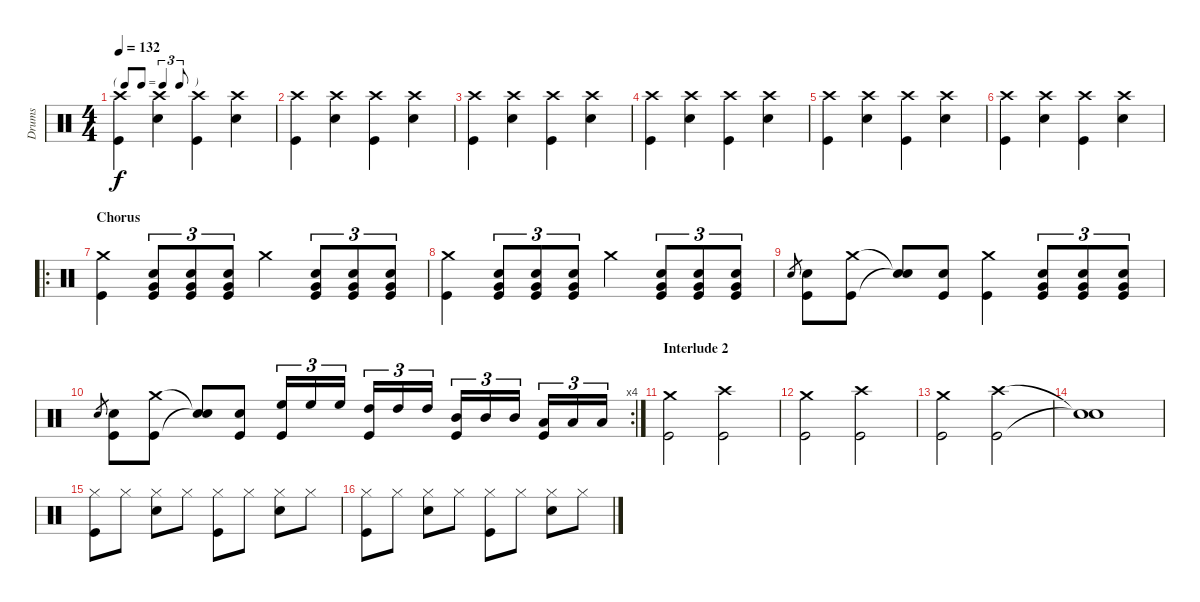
\track ("Drums" "Drums") {instrument percussion}
\staff {score}
\articulation defaults
\ts (4 4)
\tf triplet8th
\tempo 132
\clef neutral
\ks c
("Crash high (hit)" "Kick (hit)").4{dy f} ("Crash high (hit)" "Snare (hit) 2").4 ("Crash high (hit)" "Kick (hit)").4 ("Crash high (hit)" "Snare (hit) 2").4 |
("Crash high (hit)" "Kick (hit)").4 ("Crash high (hit)" "Snare (hit) 2").4 ("Crash high (hit)" "Kick (hit)").4 ("Crash high (hit)" "Snare (hit) 2").4 |
("Crash high (hit)" "Kick (hit)").4 ("Crash high (hit)" "Snare (hit) 2").4 ("Crash high (hit)" "Kick (hit)").4 ("Crash high (hit)" "Snare (hit) 2").4 |
("Crash high (hit)" "Kick (hit)").4 ("Crash high (hit)" "Snare (hit) 2").4 ("Crash high (hit)" "Kick (hit)").4 ("Crash high (hit)" "Snare (hit) 2").4 |
("Crash high (hit)" "Kick (hit)").4 ("Crash high (hit)" "Snare (hit) 2").4 ("Crash high (hit)" "Kick (hit)").4 ("Crash high (hit)" "Snare (hit) 2").4 |
("Crash high (hit)" "Kick (hit)").4 ("Crash high (hit)" "Snare (hit) 2").4 ("Crash high (hit)" "Kick (hit)").4 ("Crash high (hit)" "Snare (hit) 2").4 |
\ro
\section ("" "Chorus")
("Crash medium (hit)" "Kick (hit)").4 ("Very Low Tom (hit)" "Snare (hit) 2" "Kick (hit)").8{tu (3 2)} ("Very Low Tom (hit)" "Snare (hit) 2" "Kick (hit)").8{tu (3 2)} ("Very Low Tom (hit)" "Snare (hit) 2" "Kick (hit)").8{tu (3 2)} "Crash medium (hit)".4 ("Very Low Tom (hit)" "Snare (hit) 2" "Kick (hit)").8{tu (3 2)} ("Very Low Tom (hit)" "Snare (hit) 2" "Kick (hit)").8{tu (3 2)} ("Very Low Tom (hit)" "Snare (hit) 2" "Kick (hit)").8{tu (3 2)} |
("Crash medium (hit)" "Kick (hit)").4 ("Very Low Tom (hit)" "Snare (hit) 2" "Kick (hit)").8{tu (3 2)} ("Very Low Tom (hit)" "Snare (hit) 2" "Kick (hit)").8{tu (3 2)} ("Very Low Tom (hit)" "Snare (hit) 2" "Kick (hit)").8{tu (3 2)} "Crash medium (hit)".4 ("Very Low Tom (hit)" "Snare (hit) 2" "Kick (hit)").8{tu (3 2)} ("Very Low Tom (hit)" "Snare (hit) 2" "Kick (hit)").8{tu (3 2)} ("Very Low Tom (hit)" "Snare (hit) 2" "Kick (hit)").8{tu (3 2)} |
"Snare (hit) 2".8{gr} ("Snare (hit) 2" "Kick (hit)").8 ("Crash medium (hit)" "Kick (hit)").8 ("Snare (hit)"{t} "Snare (hit)"{t}).8 ("Snare (hit) 2" "Kick (hit)").8 ("Crash medium (hit)" "Kick (hit)").4 ("Very Low Tom (hit)" "Snare (hit) 2" "Kick (hit)").8{tu (3 2)} ("Very Low Tom (hit)" "Snare (hit) 2" "Kick (hit)").8{tu (3 2)} ("Very Low Tom (hit)" "Snare (hit) 2" "Kick (hit)").8{tu (3 2)} |
\rc 4 "Snare (hit) 2".8{gr}
("Snare (hit) 2" "Kick (hit)").8 ("Crash medium (hit)" "Kick (hit)").8 ("Snare (hit)"{t} "Snare (hit)"{t}).8 ("Snare (hit) 2" "Kick (hit)").8 ("High Floor Tom (hit)" "Kick (hit)").16{tu (3 2)} "High Floor Tom (hit)".16{tu (3 2)} "High Floor Tom (hit)".16{tu (3 2)} ("High Tom (hit)" "Kick (hit)").16{tu (3 2)} "High Tom (hit)".16{tu (3 2)} "High Tom (hit)".16{tu (3 2)} ("Mid Tom (hit)" "Kick (hit)").16{tu (3 2)} "Mid Tom (hit)".16{tu (3 2)} "Mid Tom (hit)".16{tu (3 2)} ("Low Tom (hit)" "Kick (hit)").16{tu (3 2)} "Low Tom (hit)".16{tu (3 2)} "Low Tom (hit)".16{tu (3 2)} |
\section ("" "Interlude 2")
("Crash medium (hit)" "Kick (hit)").2 ("Crash high (hit)" "Kick (hit)").2 |
("Crash medium (hit)" "Kick (hit)").2 ("Crash high (hit)" "Kick (hit)").2 |
("Crash medium (hit)" "Kick (hit)").2 ("Crash high (hit)" "Kick (hit)").2 |
("Snare (hit)"{t} "Snare (hit)"{t}).1 |
("Hi-Hat (closed)" "Kick (hit)").8 "Hi-Hat (closed)".8 ("Hi-Hat (closed)" "Snare (hit) 2").8 "Hi-Hat (closed)".8 ("Hi-Hat (closed)" "Kick (hit)").8 "Hi-Hat (closed)".8 ("Hi-Hat (closed)" "Snare (hit) 2").8 "Hi-Hat (closed)".8 |
("Hi-Hat (closed)" "Kick (hit)").8 "Hi-Hat (closed)".8 ("Hi-Hat (closed)" "Snare (hit) 2").8 "Hi-Hat (closed)".8 ("Hi-Hat (closed)" "Kick (hit)").8 "Hi-Hat (closed)".8 ("Hi-Hat (closed)" "Snare (hit) 2").8 "Hi-Hat (closed)".8
